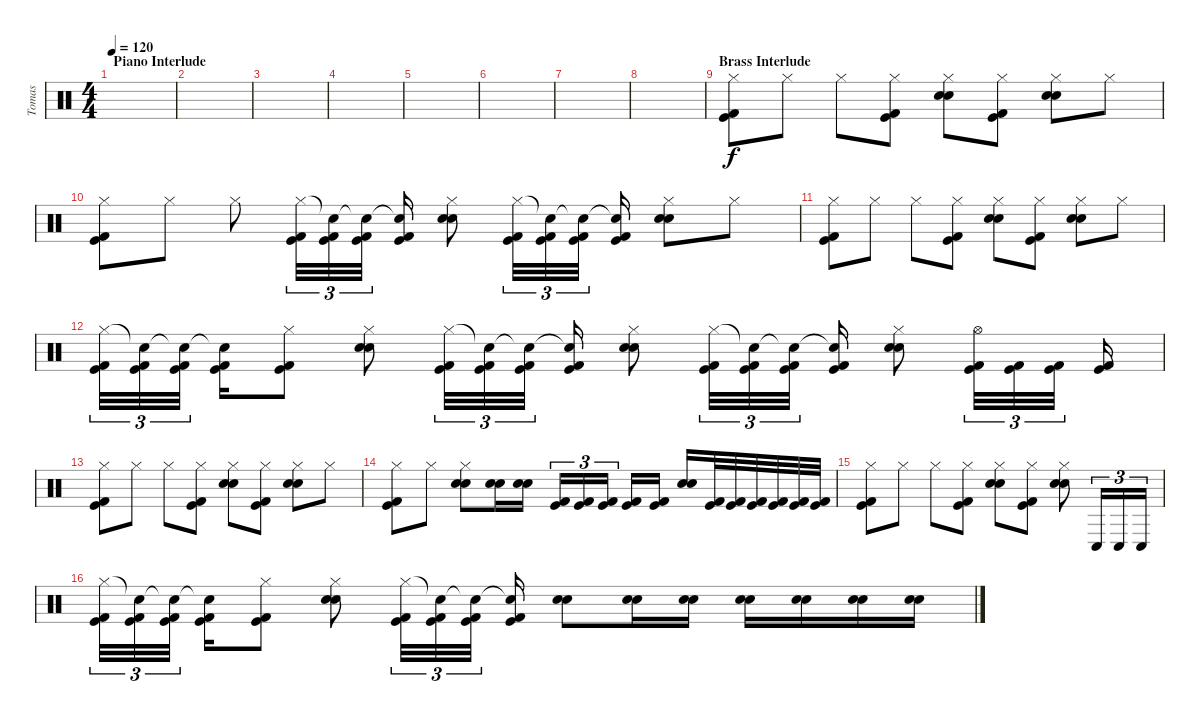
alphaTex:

\track ("Tomas" "Tomas") {instrument percussion}
\staff {score}
\articulation defaults
\ts (4 4)
\section ("" "Piano Interlude")
\tempo 120
\clef neutral
\ks c
|
|
|
|
|
|
|
|
\section ("" "Brass Interlude")
("Hi-Hat (closed)" "Kick (hit)" "Kick (hit) 2").8 "Hi-Hat (closed)".8 "Hi-Hat (closed)".8 ("Hi-Hat (closed)" "Kick (hit)" "Kick (hit) 2").8 ("Hi-Hat (closed)" "Electric Snare (hit)" "Electric Snare (hit)").8 ("Hi-Hat (closed)" "Kick (hit)" "Kick (hit) 2").8 ("Hi-Hat (closed)" "Electric Snare (hit)" "Electric Snare (hit)").8 "Hi-Hat (closed)".8 |
("Hi-Hat (closed)" "Kick (hit)" "Kick (hit) 2").8 "Hi-Hat (closed)".8 "Hi-Hat (closed)".8 ("Hi-Hat (closed)" "Kick (hit)" "Kick (hit) 2").32{tu (3 2)} ("Snare (hit)"{t} "Kick (hit)" "Kick (hit) 2").32{tu (3 2)} ("Snare (hit)"{t} "Kick (hit)" "Kick (hit) 2").32{tu (3 2)} ("Snare (hit)"{t} "Kick (hit)" "Kick (hit) 2").16 ("Hi-Hat (closed)" "Electric Snare (hit)" "Electric Snare (hit)").8 ("Hi-Hat (closed)" "Kick (hit)" "Kick (hit) 2").32{tu (3 2)} ("Snare (hit)"{t} "Kick (hit)" "Kick (hit) 2").32{tu (3 2)} ("Snare (hit)"{t} "Kick (hit)" "Kick (hit) 2").32{tu (3 2)} ("Snare (hit)"{t} "Kick (hit)" "Kick (hit) 2").16 ("Hi-Hat (closed)" "Electric Snare (hit)" "Electric Snare (hit)").8 "Hi-Hat (closed)".8 |
("Hi-Hat (closed)" "Kick (hit)" "Kick (hit) 2").8 "Hi-Hat (closed)".8 "Hi-Hat (closed)".8 ("Hi-Hat (closed)" "Kick (hit)" "Kick (hit) 2").8 ("Hi-Hat (closed)" "Electric Snare (hit)" "Electric Snare (hit)").8 ("Hi-Hat (closed)" "Kick (hit)" "Kick (hit) 2").8 ("Hi-Hat (closed)" "Electric Snare (hit)" "Electric Snare (hit)").8 "Hi-Hat (closed)".8 |
("Hi-Hat (closed)" "Kick (hit)" "Kick (hit) 2").32{tu (3 2)} ("Snare (hit)"{t} "Kick (hit)" "Kick (hit) 2").32{tu (3 2)} ("Snare (hit)"{t} "Kick (hit)" "Kick (hit) 2").32{tu (3 2)} ("Snare (hit)"{t} "Kick (hit)" "Kick (hit) 2").16 ("Hi-Hat (closed)" "Kick (hit)" "Kick (hit) 2").8 ("Hi-Hat (closed)" "Electric Snare (hit)" "Electric Snare (hit)").8 ("Hi-Hat (closed)" "Kick (hit)" "Kick (hit) 2").32{tu (3 2)} ("Snare (hit)"{t} "Kick (hit)" "Kick (hit) 2").32{tu (3 2)} ("Snare (hit)"{t} "Kick (hit)" "Kick (hit) 2").32{tu (3 2)} ("Snare (hit)"{t} "Kick (hit)" "Kick (hit) 2").16 ("Hi-Hat (closed)" "Electric Snare (hit)" "Electric Snare (hit)").8 ("Hi-Hat (closed)" "Kick (hit)" "Kick (hit) 2").32{tu (3 2)} ("Snare (hit)"{t} "Kick (hit)" "Kick (hit) 2").32{tu (3 2)} ("Snare (hit)"{t} "Kick (hit)" "Kick (hit) 2").32{tu (3 2)} ("Snare (hit)"{t} "Kick (hit)" "Kick (hit) 2").16 ("Hi-Hat (closed)" "Electric Snare (hit)" "Electric Snare (hit)").8 ("Hi-Hat (open)" "Kick (hit)" "Kick (hit) 2").32{tu (3 2)} ("Kick (hit)" "Kick (hit) 2").32{tu (3 2)} ("Kick (hit)" "Kick (hit) 2").32{tu (3 2)} ("Kick (hit)" "Kick (hit) 2").16 |
("Hi-Hat (closed)" "Kick (hit)" "Kick (hit) 2").8 "Hi-Hat (closed)".8 "Hi-Hat (closed)".8 ("Hi-Hat (closed)" "Kick (hit)" "Kick (hit) 2").8 ("Hi-Hat (closed)" "Electric Snare (hit)" "Electric Snare (hit)").8 ("Hi-Hat (closed)" "Kick (hit)" "Kick (hit) 2").8 ("Hi-Hat (closed)" "Electric Snare (hit)" "Electric Snare (hit)").8 "Hi-Hat (closed)".8 |
("Hi-Hat (closed)" "Kick (hit)" "Kick (hit) 2").8 "Hi-Hat (closed)".8 ("Hi-Hat (closed)" "Electric Snare (hit)" "Electric Snare (hit)").8 ("Electric Snare (hit)" "Electric Snare (hit)").16 ("Electric Snare (hit)" "Electric Snare (hit)").16 ("Kick (hit)" "Kick (hit) 2").16{tu (3 2)} ("Kick (hit)" "Kick (hit) 2").16{tu (3 2)} ("Kick (hit)" "Kick (hit) 2").16{tu (3 2)} ("Kick (hit)" "Kick (hit) 2").16 ("Kick (hit)" "Kick (hit) 2").16 ("Electric Snare (hit)" "Electric Snare (hit)").16 ("Kick (hit)" "Kick (hit) 2").32 ("Kick (hit)" "Kick (hit) 2").32 ("Kick (hit)" "Kick (hit) 2").32 ("Kick (hit)" "Kick (hit) 2").32 ("Kick (hit)" "Kick (hit) 2").32 ("Kick (hit)" "Kick (hit) 2").32 |
("Hi-Hat (closed)" "Kick (hit)" "Kick (hit) 2").8 "Hi-Hat (closed)".8 "Hi-Hat (closed)".8 ("Hi-Hat (closed)" "Kick (hit)" "Kick (hit) 2").8 ("Hi-Hat (closed)" "Electric Snare (hit)" "Electric Snare (hit)").8 ("Hi-Hat (closed)" "Kick (hit)" "Kick (hit) 2").8 ("Hi-Hat (closed)" "Electric Snare (hit)" "Electric Snare (hit)").8 "Conga low (hit)".16{tu (3 2)} "Conga low (hit)".16{tu (3 2)} "Conga low (hit)".16{tu (3 2)} |
("Hi-Hat (closed)" "Kick (hit)" "Kick (hit) 2").32{tu (3 2)} ("Snare (hit)"{t} "Kick (hit)" "Kick (hit) 2").32{tu (3 2)} ("Snare (hit)"{t} "Kick (hit)" "Kick (hit) 2").32{tu (3 2)} ("Snare (hit)"{t} "Kick (hit)" "Kick (hit) 2").16 ("Hi-Hat (closed)" "Kick (hit)" "Kick (hit) 2").8 ("Hi-Hat (closed)" "Electric Snare (hit)" "Electric Snare (hit)").8 ("Hi-Hat (closed)" "Kick (hit)" "Kick (hit) 2").32{tu (3 2)} ("Snare (hit)"{t} "Kick (hit)" "Kick (hit) 2").32{tu (3 2)} ("Snare (hit)"{t} "Kick (hit)" "Kick (hit) 2").32{tu (3 2)} ("Snare (hit)"{t} "Kick (hit)" "Kick (hit) 2").16 ("Electric Snare (hit)" "Electric Snare (hit)").8 ("Electric Snare (hit)" "Electric Snare (hit)").16 ("Electric Snare (hit)" "Electric Snare (hit)").16 ("Electric Snare (hit)" "Electric Snare (hit)").16 ("Electric Snare (hit)" "Electric Snare (hit)").16 ("Electric Snare (hit)" "Electric Snare (hit)").16 ("Electric Snare (hit)" "Electric Snare (hit)").16
